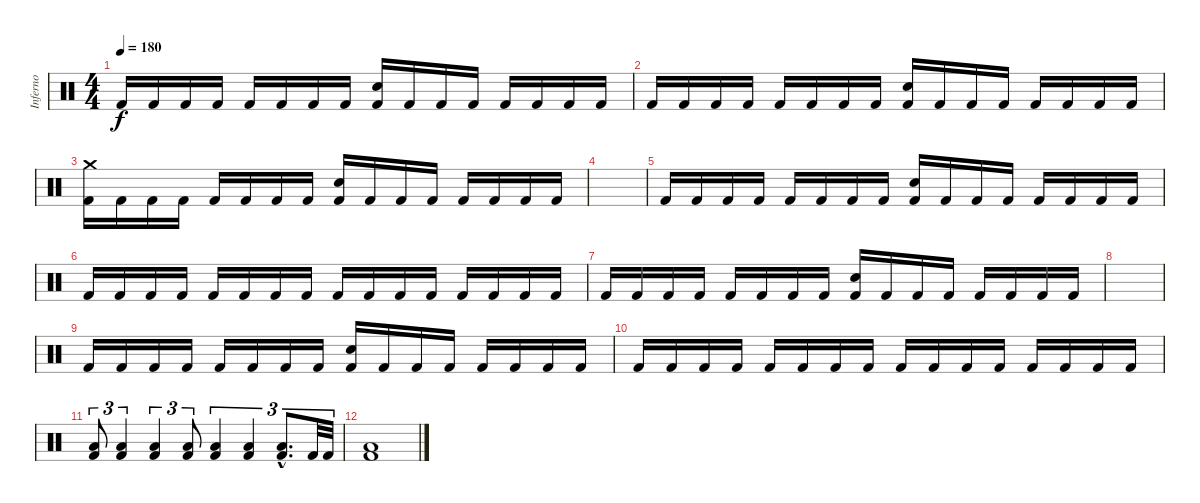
\track ("Inferno" "Inferno") {instrument percussion}
\staff {score}
\articulation defaults
\ts (4 4)
\tempo 180
\clef neutral
\ks c "Kick (hit) 2".16{dy f} "Kick (hit) 2".16 "Kick (hit) 2".16 "Kick (hit) 2".16 "Kick (hit) 2".16 "Kick (hit) 2".16 "Kick (hit) 2".16 "Kick (hit) 2".16
("Snare (hit) 2" "Kick (hit) 2").16 "Kick (hit) 2".16 "Kick (hit) 2".16 "Kick (hit) 2".16 "Kick (hit) 2".16 "Kick (hit) 2".16 "Kick (hit) 2".16 "Kick (hit) 2".16 |
"Kick (hit) 2".16 "Kick (hit) 2".16 "Kick (hit) 2".16 "Kick (hit) 2".16 "Kick (hit) 2".16 "Kick (hit) 2".16 "Kick (hit) 2".16 "Kick (hit) 2".16 ("Snare (hit) 2" "Kick (hit) 2").16 "Kick (hit) 2".16 "Kick (hit) 2".16 "Kick (hit) 2".16 "Kick (hit) 2".16 "Kick (hit) 2".16 "Kick (hit) 2".16 "Kick (hit) 2".16 |
("Crash medium (hit)" "Kick (hit) 2").16 "Kick (hit) 2".16 "Kick (hit) 2".16 "Kick (hit) 2".16 "Kick (hit) 2".16 "Kick (hit) 2".16 "Kick (hit) 2".16 "Kick (hit) 2".16 ("Snare (hit) 2" "Kick (hit) 2").16 "Kick (hit) 2".16 "Kick (hit) 2".16 "Kick (hit) 2".16 "Kick (hit) 2".16 "Kick (hit) 2".16 "Kick (hit) 2".16 "Kick (hit) 2".16 |
|
"Kick (hit) 2".16 "Kick (hit) 2".16 "Kick (hit) 2".16 "Kick (hit) 2".16 "Kick (hit) 2".16 "Kick (hit) 2".16 "Kick (hit) 2".16 "Kick (hit) 2".16 ("Snare (hit) 2" "Kick (hit) 2").16 "Kick (hit) 2".16 "Kick (hit) 2".16 "Kick (hit) 2".16 "Kick (hit) 2".16 "Kick (hit) 2".16 "Kick (hit) 2".16 "Kick (hit) 2".16 |
"Kick (hit) 2".16 "Kick (hit) 2".16 "Kick (hit) 2".16 "Kick (hit) 2".16 "Kick (hit) 2".16 "Kick (hit) 2".16 "Kick (hit) 2".16 "Kick (hit) 2".16 "Kick (hit) 2".16 "Kick (hit) 2".16 "Kick (hit) 2".16 "Kick (hit) 2".16 "Kick (hit) 2".16 "Kick (hit) 2".16 "Kick (hit) 2".16 "Kick (hit) 2".16 |
"Kick (hit) 2".16 "Kick (hit) 2".16 "Kick (hit) 2".16 "Kick (hit) 2".16 "Kick (hit) 2".16 "Kick (hit) 2".16 "Kick (hit) 2".16 "Kick (hit) 2".16 ("Snare (hit) 2" "Kick (hit) 2").16 "Kick (hit) 2".16 "Kick (hit) 2".16 "Kick (hit) 2".16 "Kick (hit) 2".16 "Kick (hit) 2".16 "Kick (hit) 2".16 "Kick (hit) 2".16 |
|
"Kick (hit) 2".16 "Kick (hit) 2".16 "Kick (hit) 2".16 "Kick (hit) 2".16 "Kick (hit) 2".16 "Kick (hit) 2".16 "Kick (hit) 2".16 "Kick (hit) 2".16 ("Snare (hit) 2" "Kick (hit) 2").16 "Kick (hit) 2".16 "Kick (hit) 2".16 "Kick (hit) 2".16 "Kick (hit) 2".16 "Kick (hit) 2".16 "Kick (hit) 2".16 "Kick (hit) 2".16 |
"Kick (hit) 2".16 "Kick (hit) 2".16 "Kick (hit) 2".16 "Kick (hit) 2".16 "Kick (hit) 2".16 "Kick (hit) 2".16 "Kick (hit) 2".16 "Kick (hit) 2".16 "Kick (hit) 2".16 "Kick (hit) 2".16 "Kick (hit) 2".16 "Kick (hit) 2".16 "Kick (hit) 2".16 "Kick (hit) 2".16 "Kick (hit) 2".16 "Kick (hit) 2".16 |
("Low Floor Tom (hit)" "Kick (hit) 2").8{tu (3 2)} ("Low Floor Tom (hit)" "Kick (hit) 2").4{tu (3 2)} ("Low Floor Tom (hit)" "Kick (hit) 2").4{tu (3 2)} ("Low Floor Tom (hit)" "Kick (hit) 2").8{tu (3 2)} ("Low Floor Tom (hit)" "Kick (hit) 2").4{tu (3 2)} ("Low Floor Tom (hit)" "Kick (hit) 2").4{tu (3 2)} ("Low Floor Tom (hit)"{hac} "Kick (hit) 2"{hac}).8{d tu (3 2)} "Kick (hit) 2".32{tu (3 2)} "Kick (hit) 2".32{tu (3 2)} |
("Low Floor Tom (hit)" "Kick (hit) 2").1
